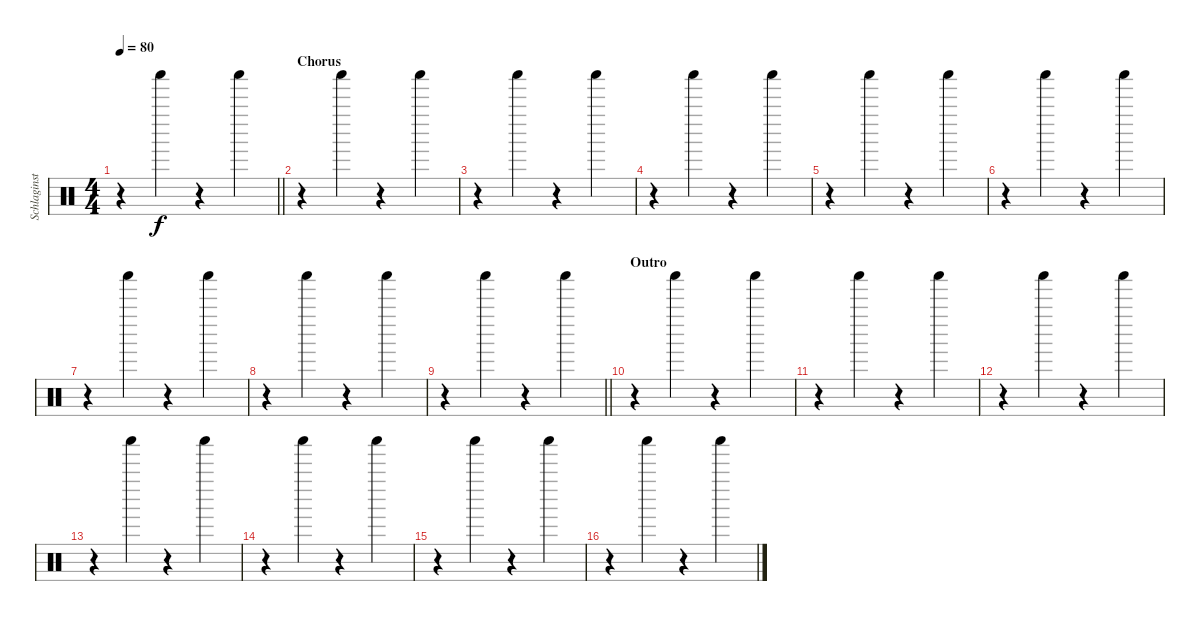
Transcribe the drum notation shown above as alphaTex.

\track ("Schlaginstrumente - Auswahl" "Schlaginst") {instrument percussion}
\staff {score}
\articulation defaults
\ts (4 4)
\tempo 80
\clef neutral
\barLineRight lightlight
\ks c
r.4{dy f} "Shaker (hit)".4 r.4 "Shaker (hit)".4 |
\section ("" "Chorus")
r.4 "Shaker (hit)".4 r.4 "Shaker (hit)".4 |
r.4 "Shaker (hit)".4 r.4 "Shaker (hit)".4 |
r.4 "Shaker (hit)".4 r.4 "Shaker (hit)".4 |
r.4 "Shaker (hit)".4 r.4 "Shaker (hit)".4 |
r.4 "Shaker (hit)".4 r.4 "Shaker (hit)".4 |
r.4 "Shaker (hit)".4 r.4 "Shaker (hit)".4 |
r.4 "Shaker (hit)".4 r.4 "Shaker (hit)".4 |
\barLineRight lightlight
r.4 "Shaker (hit)".4 r.4 "Shaker (hit)".4 |
\section ("" "Outro")
r.4 "Shaker (hit)".4 r.4 "Shaker (hit)".4 |
r.4 "Shaker (hit)".4 r.4 "Shaker (hit)".4 |
r.4 "Shaker (hit)".4 r.4 "Shaker (hit)".4 |
r.4 "Shaker (hit)".4 r.4 "Shaker (hit)".4 |
r.4 "Shaker (hit)".4 r.4 "Shaker (hit)".4 |
r.4 "Shaker (hit)".4 r.4 "Shaker (hit)".4 |
r.4 "Shaker (hit)".4 r.4 "Shaker (hit)".4
